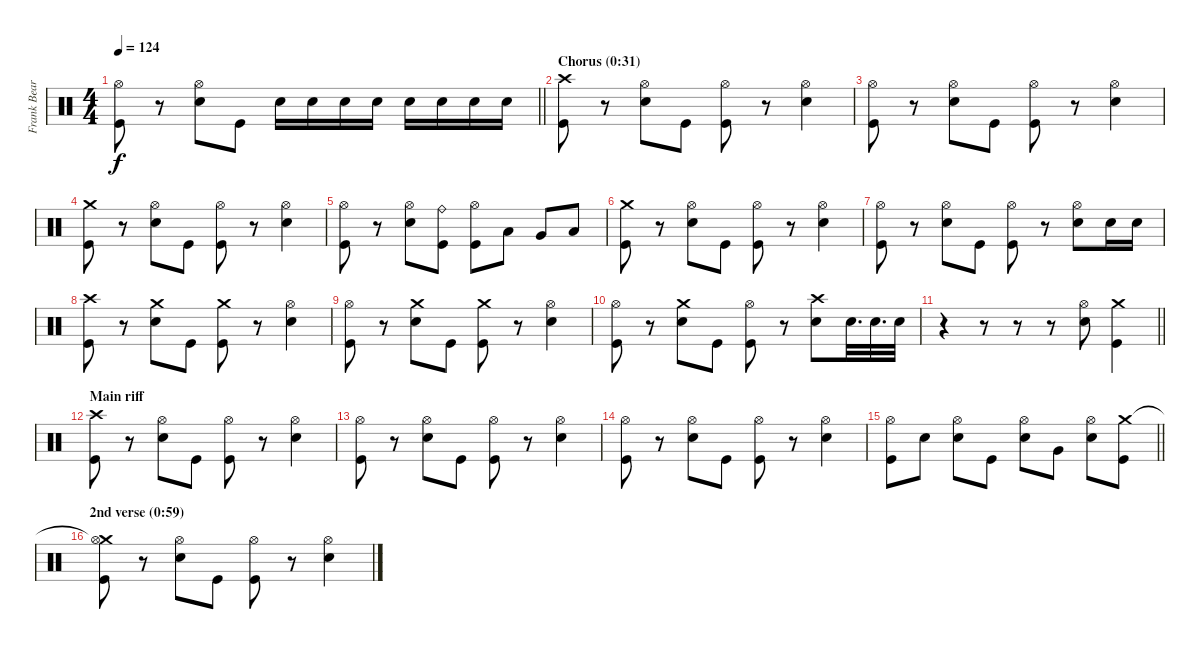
\track ("Frank Beard" "Frank Bear") {instrument percussion}
\staff {score}
\articulation defaults
\ts (4 4)
\tempo 124
\clef neutral
\barLineRight lightlight
\ks c
("Hi-Hat (open)" "Kick (hit)").8{dy f} r.8 ("Hi-Hat (open)" "Electric Snare (hit)").8 "Kick (hit)".8 "Electric Snare (hit)".16 "Electric Snare (hit)".16 "Electric Snare (hit)".16 "Electric Snare (hit)".16 "Electric Snare (hit)".16 "Electric Snare (hit)".16 "Electric Snare (hit)".16 "Electric Snare (hit)".16 |
\section ("" "Chorus (0:31)")
("Crash high (hit)" "Kick (hit)").8 r.8 ("Hi-Hat (open)" "Electric Snare (hit)").8 "Kick (hit)".8 ("Hi-Hat (open)" "Kick (hit)").8 r.8 ("Hi-Hat (open)" "Electric Snare (hit)").4 |
("Hi-Hat (open)" "Kick (hit)").8 r.8 ("Hi-Hat (open)" "Electric Snare (hit)").8 "Kick (hit)".8 ("Hi-Hat (open)" "Kick (hit)").8 r.8 ("Hi-Hat (open)" "Electric Snare (hit)").4 |
("Crash medium (hit)" "Kick (hit)").8 r.8 ("Hi-Hat (open)" "Electric Snare (hit)").8 "Kick (hit)".8 ("Hi-Hat (open)" "Kick (hit)").8 r.8 ("Hi-Hat (open)" "Electric Snare (hit)").4 |
("Hi-Hat (open)" "Kick (hit)").8 r.8 ("Hi-Hat (open)" "Electric Snare (hit)").8 ("Ride (bell)" "Kick (hit)").8 ("Hi-Hat (open)" "Kick (hit)").8 "Low Tom (hit)".8 "Very Low Tom (hit)".8 "Low Floor Tom (hit)".8 |
("Crash medium (hit)" "Kick (hit)").8 r.8 ("Hi-Hat (open)" "Electric Snare (hit)").8 "Kick (hit)".8 ("Hi-Hat (open)" "Kick (hit)").8 r.8 ("Hi-Hat (open)" "Electric Snare (hit)").4 |
("Hi-Hat (open)" "Kick (hit)").8 r.8 ("Hi-Hat (open)" "Electric Snare (hit)").8 "Kick (hit)".8 ("Hi-Hat (open)" "Kick (hit)").8 r.8 ("Hi-Hat (open)" "Electric Snare (hit)").8 "Electric Snare (hit)".16 "Electric Snare (hit)".16 |
("Crash high (hit)" "Kick (hit)").8 r.8 ("Crash medium (hit)" "Electric Snare (hit)").8 "Kick (hit)".8 ("Crash medium (hit)" "Kick (hit)").8 r.8 ("Hi-Hat (open)" "Electric Snare (hit)").4 |
("Hi-Hat (open)" "Kick (hit)").8 r.8 ("Crash medium (hit)" "Electric Snare (hit)").8 "Kick (hit)".8 ("Crash medium (hit)" "Kick (hit)").8 r.8 ("Hi-Hat (open)" "Electric Snare (hit)").4 |
("Hi-Hat (open)" "Kick (hit)").8 r.8 ("Crash medium (hit)" "Electric Snare (hit)").8 "Kick (hit)".8 ("Hi-Hat (open)" "Kick (hit)").8 r.8 ("Crash high (hit)" "Electric Snare (hit)").8 "Electric Snare (hit)".32{d} "Electric Snare (hit)".32{d} "Electric Snare (hit)".32 |
\barLineRight lightlight
r.4 r.8 r.8 r.8 ("Hi-Hat (open)" "Electric Snare (hit)").8 ("Crash medium (hit)" "Kick (hit)").4 |
\section ("" "Main riff")
("Crash high (hit)" "Kick (hit)").8 r.8 ("Hi-Hat (open)" "Electric Snare (hit)").8 "Kick (hit)".8 ("Hi-Hat (open)" "Kick (hit)").8 r.8 ("Hi-Hat (open)" "Electric Snare (hit)").4 |
("Hi-Hat (open)" "Kick (hit)").8 r.8 ("Hi-Hat (open)" "Electric Snare (hit)").8 "Kick (hit)".8 ("Hi-Hat (open)" "Kick (hit)").8 r.8 ("Hi-Hat (open)" "Electric Snare (hit)").4 |
("Hi-Hat (open)" "Kick (hit)").8 r.8 ("Hi-Hat (open)" "Electric Snare (hit)").8 "Kick (hit)".8 ("Hi-Hat (open)" "Kick (hit)").8 r.8 ("Hi-Hat (open)" "Electric Snare (hit)").4 |
\barLineRight lightlight
("Hi-Hat (open)" "Kick (hit)").8 "Electric Snare (hit)".8 ("Hi-Hat (open)" "Electric Snare (hit)").8 "Kick (hit)".8 ("Hi-Hat (open)" "Electric Snare (hit)").8 "Very Low Tom (hit)".8 ("Hi-Hat (open)" "Electric Snare (hit)").8 ("Crash medium (hit)" "Kick (hit)").8 |
\section ("" "2nd verse (0:59)")
("Crash medium (hit)"{t} "Hi-Hat (open)" "Kick (hit)").8 r.8 ("Hi-Hat (open)" "Electric Snare (hit)").8 "Kick (hit)".8 ("Hi-Hat (open)" "Kick (hit)").8 r.8 ("Hi-Hat (open)" "Electric Snare (hit)").4
